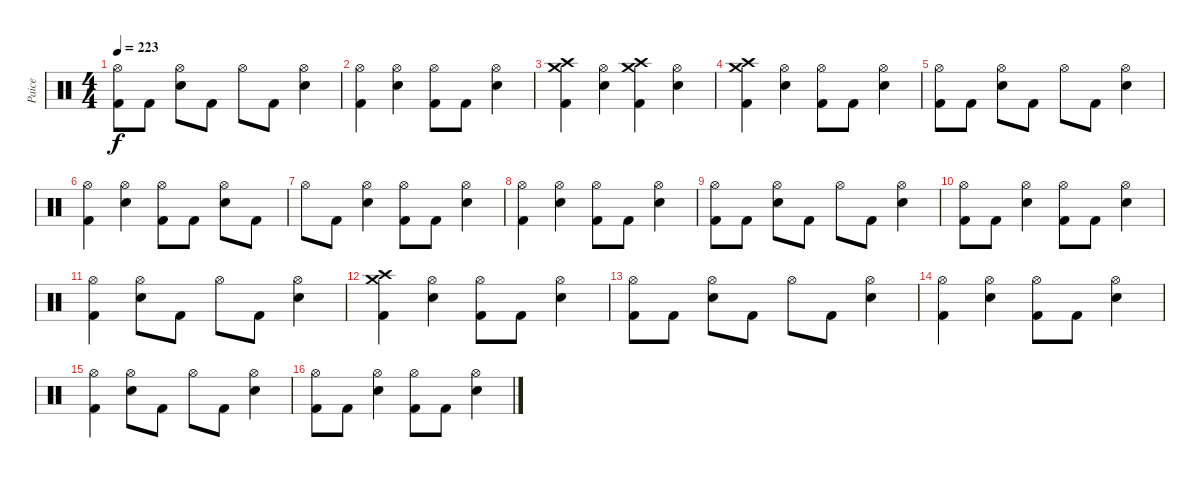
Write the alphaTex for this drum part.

\track ("Paice" "Paice") {instrument percussion}
\staff {score}
\articulation defaults
\ts (4 4)
\tempo 223
\clef neutral
\ks c
("Hi-Hat (open)" "Kick (hit) 2").8{dy f} "Kick (hit) 2".8 ("Hi-Hat (open)" "Electric Snare (hit)").8 "Kick (hit) 2".8 "Hi-Hat (open)".8 "Kick (hit) 2".8 ("Hi-Hat (open)" "Electric Snare (hit)").4 |
("Hi-Hat (open)" "Kick (hit) 2").4 ("Hi-Hat (open)" "Electric Snare (hit)").4 ("Hi-Hat (open)" "Kick (hit) 2").8 "Kick (hit) 2".8 ("Hi-Hat (open)" "Electric Snare (hit)").4 |
("Crash high (hit)" "Crash medium (hit)" "Kick (hit) 2").4 ("Hi-Hat (open)" "Electric Snare (hit)").4 ("Crash high (hit)" "Crash medium (hit)" "Kick (hit) 2").4 ("Hi-Hat (open)" "Electric Snare (hit)").4 |
("Crash high (hit)" "Crash medium (hit)" "Kick (hit) 2").4 ("Hi-Hat (open)" "Electric Snare (hit)").4 ("Hi-Hat (open)" "Kick (hit) 2").8 "Kick (hit) 2".8 ("Hi-Hat (open)" "Electric Snare (hit)").4 |
("Hi-Hat (open)" "Kick (hit) 2").8 "Kick (hit) 2".8 ("Hi-Hat (open)" "Electric Snare (hit)").8 "Kick (hit) 2".8 "Hi-Hat (open)".8 "Kick (hit) 2".8 ("Hi-Hat (open)" "Electric Snare (hit)").4 |
("Hi-Hat (open)" "Kick (hit) 2").4 ("Hi-Hat (open)" "Electric Snare (hit)").4 ("Hi-Hat (open)" "Kick (hit) 2").8 "Kick (hit) 2".8 ("Hi-Hat (open)" "Electric Snare (hit)").8 "Kick (hit) 2".8 |
"Hi-Hat (open)".8 "Kick (hit) 2".8 ("Hi-Hat (open)" "Electric Snare (hit)").4 ("Hi-Hat (open)" "Kick (hit) 2").8 "Kick (hit) 2".8 ("Hi-Hat (open)" "Electric Snare (hit)").4 |
("Hi-Hat (open)" "Kick (hit) 2").4 ("Hi-Hat (open)" "Electric Snare (hit)").4 ("Hi-Hat (open)" "Kick (hit) 2").8 "Kick (hit) 2".8 ("Hi-Hat (open)" "Electric Snare (hit)").4 |
("Hi-Hat (open)" "Kick (hit) 2").8 "Kick (hit) 2".8 ("Hi-Hat (open)" "Electric Snare (hit)").8 "Kick (hit) 2".8 "Hi-Hat (open)".8 "Kick (hit) 2".8 ("Hi-Hat (open)" "Electric Snare (hit)").4 |
("Hi-Hat (open)" "Kick (hit) 2").8 "Kick (hit) 2".8 ("Hi-Hat (open)" "Electric Snare (hit)").4 ("Hi-Hat (open)" "Kick (hit) 2").8 "Kick (hit) 2".8 ("Hi-Hat (open)" "Electric Snare (hit)").4 |
("Hi-Hat (open)" "Kick (hit) 2").4 ("Hi-Hat (open)" "Electric Snare (hit)").8 "Kick (hit) 2".8 "Hi-Hat (open)".8 "Kick (hit) 2".8 ("Hi-Hat (open)" "Electric Snare (hit)").4 |
("Crash high (hit)" "Crash medium (hit)" "Kick (hit) 2").4 ("Hi-Hat (open)" "Electric Snare (hit)").4 ("Hi-Hat (open)" "Kick (hit) 2").8 "Kick (hit) 2".8 ("Hi-Hat (open)" "Electric Snare (hit)").4 |
("Hi-Hat (open)" "Kick (hit) 2").8 "Kick (hit) 2".8 ("Hi-Hat (open)" "Electric Snare (hit)").8 "Kick (hit) 2".8 "Hi-Hat (open)".8 "Kick (hit) 2".8 ("Hi-Hat (open)" "Electric Snare (hit)").4 |
("Hi-Hat (open)" "Kick (hit) 2").4 ("Hi-Hat (open)" "Electric Snare (hit)").4 ("Hi-Hat (open)" "Kick (hit) 2").8 "Kick (hit) 2".8 ("Hi-Hat (open)" "Electric Snare (hit)").4 |
("Hi-Hat (open)" "Kick (hit) 2").4 ("Hi-Hat (open)" "Electric Snare (hit)").8 "Kick (hit) 2".8 "Hi-Hat (open)".8 "Kick (hit) 2".8 ("Hi-Hat (open)" "Electric Snare (hit)").4 |
("Hi-Hat (open)" "Kick (hit) 2").8 "Kick (hit) 2".8 ("Hi-Hat (open)" "Electric Snare (hit)").4 ("Hi-Hat (open)" "Kick (hit) 2").8 "Kick (hit) 2".8 ("Hi-Hat (open)" "Electric Snare (hit)").4
